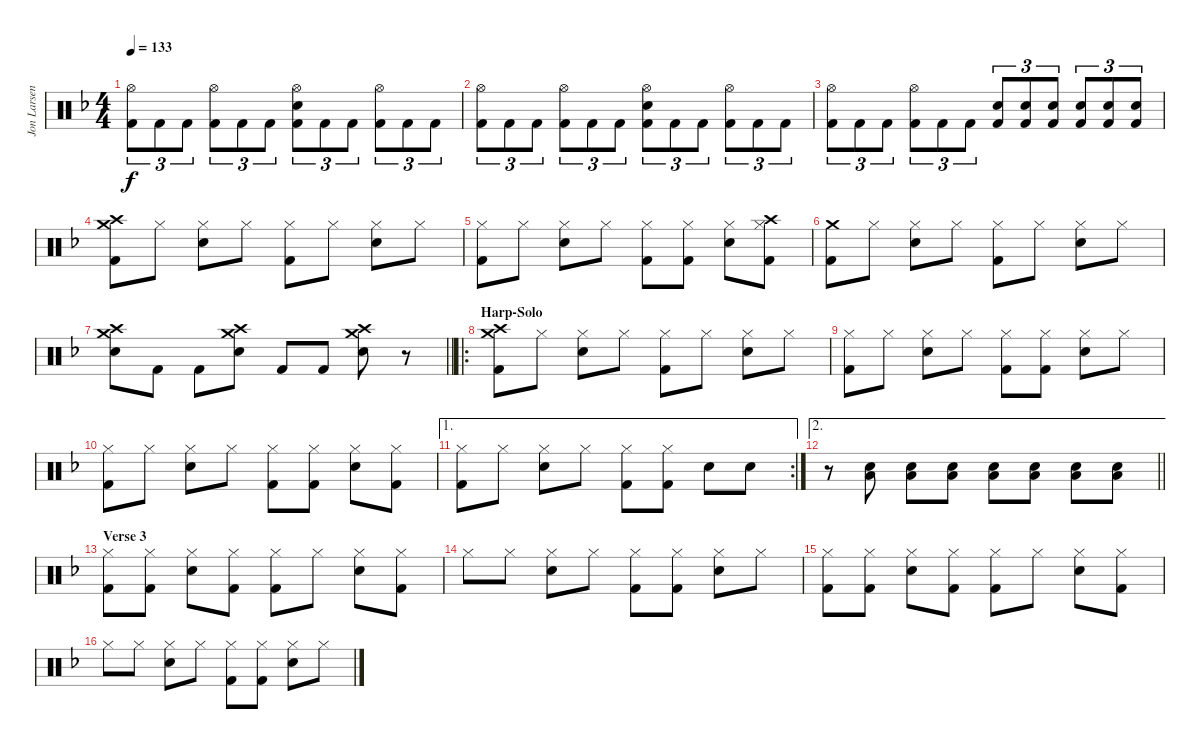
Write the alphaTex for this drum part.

\track ("Jon Larsen" "Jon Larsen") {instrument percussion}
\staff {score}
\articulation defaults
\ts (4 4)
\tempo 133
\clef neutral
\ks f
("Hi-Hat (open)" "Kick (hit) 2").8{tu (3 2) dy f} "Kick (hit) 2".8{tu (3 2)} "Kick (hit) 2".8{tu (3 2)} ("Hi-Hat (open)" "Kick (hit) 2").8{tu (3 2)} "Kick (hit) 2".8{tu (3 2)} "Kick (hit) 2".8{tu (3 2)} ("Hi-Hat (open)" "Kick (hit) 2" "Electric Snare (hit)").8{tu (3 2)} "Kick (hit) 2".8{tu (3 2)} "Kick (hit) 2".8{tu (3 2)} ("Hi-Hat (open)" "Kick (hit) 2").8{tu (3 2)} "Kick (hit) 2".8{tu (3 2)} "Kick (hit) 2".8{tu (3 2)} |
("Hi-Hat (open)" "Kick (hit) 2").8{tu (3 2)} "Kick (hit) 2".8{tu (3 2)} "Kick (hit) 2".8{tu (3 2)} ("Hi-Hat (open)" "Kick (hit) 2").8{tu (3 2)} "Kick (hit) 2".8{tu (3 2)} "Kick (hit) 2".8{tu (3 2)} ("Hi-Hat (open)" "Kick (hit) 2" "Electric Snare (hit)").8{tu (3 2)} "Kick (hit) 2".8{tu (3 2)} "Kick (hit) 2".8{tu (3 2)} ("Hi-Hat (open)" "Kick (hit) 2").8{tu (3 2)} "Kick (hit) 2".8{tu (3 2)} "Kick (hit) 2".8{tu (3 2)} |
("Hi-Hat (open)" "Kick (hit) 2").8{tu (3 2)} "Kick (hit) 2".8{tu (3 2)} "Kick (hit) 2".8{tu (3 2)} ("Hi-Hat (open)" "Kick (hit) 2").8{tu (3 2)} "Kick (hit) 2".8{tu (3 2)} "Kick (hit) 2".8{tu (3 2)} ("Kick (hit) 2" "Electric Snare (hit)").8{tu (3 2)} ("Kick (hit) 2" "Electric Snare (hit)").8{tu (3 2)} ("Kick (hit) 2" "Electric Snare (hit)").8{tu (3 2)} ("Kick (hit) 2" "Electric Snare (hit)").8{tu (3 2)} ("Kick (hit) 2" "Electric Snare (hit)").8{tu (3 2)} ("Kick (hit) 2" "Electric Snare (hit)").8{tu (3 2)} |
("Crash medium (hit)" "Crash high (hit)" "Kick (hit) 2").8 "Hi-Hat (closed)".8 ("Hi-Hat (closed)" "Electric Snare (hit)").8 "Hi-Hat (closed)".8 ("Hi-Hat (closed)" "Kick (hit) 2").8 "Hi-Hat (closed)".8 ("Hi-Hat (closed)" "Electric Snare (hit)").8 "Hi-Hat (closed)".8 |
("Hi-Hat (closed)" "Kick (hit) 2").8 "Hi-Hat (closed)".8 ("Hi-Hat (closed)" "Electric Snare (hit)").8 "Hi-Hat (closed)".8 ("Hi-Hat (closed)" "Kick (hit) 2").8 ("Hi-Hat (closed)" "Kick (hit) 2").8 ("Hi-Hat (closed)" "Electric Snare (hit)").8 ("Crash high (hit)" "Hi-Hat (closed)" "Kick (hit) 2").8 |
("Crash medium (hit)" "Kick (hit) 2").8 "Hi-Hat (closed)".8 ("Hi-Hat (closed)" "Electric Snare (hit)").8 "Hi-Hat (closed)".8 ("Hi-Hat (closed)" "Kick (hit) 2").8 "Hi-Hat (closed)".8 ("Hi-Hat (closed)" "Electric Snare (hit)").8 "Hi-Hat (closed)".8 |
\barLineRight lightlight
("Crash medium (hit)" "Crash high (hit)" "Electric Snare (hit)").8 "Kick (hit) 2".8 "Kick (hit) 2".8 ("Crash medium (hit)" "Crash high (hit)" "Electric Snare (hit)").8 "Kick (hit) 2".8 "Kick (hit) 2".8 ("Crash medium (hit)" "Crash high (hit)" "Electric Snare (hit)").8 r.8 |
\ro
\section ("" "Harp-Solo")
("Crash medium (hit)" "Crash high (hit)" "Kick (hit) 2").8 "Hi-Hat (closed)".8 ("Hi-Hat (closed)" "Electric Snare (hit)").8 "Hi-Hat (closed)".8 ("Hi-Hat (closed)" "Kick (hit) 2").8 "Hi-Hat (closed)".8 ("Hi-Hat (closed)" "Electric Snare (hit)").8 "Hi-Hat (closed)".8 |
("Hi-Hat (closed)" "Kick (hit) 2").8 "Hi-Hat (closed)".8 ("Hi-Hat (closed)" "Electric Snare (hit)").8 "Hi-Hat (closed)".8 ("Hi-Hat (closed)" "Kick (hit) 2").8 ("Hi-Hat (closed)" "Kick (hit) 2").8 ("Hi-Hat (closed)" "Electric Snare (hit)").8 "Hi-Hat (closed)".8 |
("Hi-Hat (closed)" "Kick (hit) 2").8 "Hi-Hat (closed)".8 ("Hi-Hat (closed)" "Electric Snare (hit)").8 "Hi-Hat (closed)".8 ("Hi-Hat (closed)" "Kick (hit) 2").8 ("Hi-Hat (closed)" "Kick (hit) 2").8 ("Hi-Hat (closed)" "Electric Snare (hit)").8 ("Hi-Hat (closed)" "Kick (hit) 2").8 |
\ae 1
\rc 2
("Hi-Hat (closed)" "Kick (hit) 2").8 "Hi-Hat (closed)".8 ("Hi-Hat (closed)" "Electric Snare (hit)").8 "Hi-Hat (closed)".8 ("Hi-Hat (closed)" "Kick (hit) 2").8 ("Hi-Hat (closed)" "Kick (hit) 2").8 "Electric Snare (hit)".8 "Electric Snare (hit)".8 |
\ae 2
\barLineRight lightlight
r.8 ("Low Tom (hit)" "Electric Snare (hit)").8 ("Low Tom (hit)" "Electric Snare (hit)").8 ("Low Tom (hit)" "Electric Snare (hit)").8 ("Low Tom (hit)" "Electric Snare (hit)").8 ("Low Tom (hit)" "Electric Snare (hit)").8 ("Low Tom (hit)" "Electric Snare (hit)").8 ("Low Tom (hit)" "Electric Snare (hit)").8 |
\section ("" "Verse 3")
("Hi-Hat (closed)" "Kick (hit) 2").8 ("Hi-Hat (closed)" "Kick (hit) 2").8 ("Hi-Hat (closed)" "Electric Snare (hit)").8 ("Hi-Hat (closed)" "Kick (hit) 2").8 ("Hi-Hat (closed)" "Kick (hit) 2").8 "Hi-Hat (closed)".8 ("Hi-Hat (closed)" "Electric Snare (hit)").8 ("Hi-Hat (closed)" "Kick (hit) 2").8 |
"Hi-Hat (closed)".8 "Hi-Hat (closed)".8 ("Hi-Hat (closed)" "Electric Snare (hit)").8 "Hi-Hat (closed)".8 ("Hi-Hat (closed)" "Kick (hit) 2").8 ("Hi-Hat (closed)" "Kick (hit) 2").8 ("Hi-Hat (closed)" "Electric Snare (hit)").8 "Hi-Hat (closed)".8 |
("Hi-Hat (closed)" "Kick (hit) 2").8 ("Hi-Hat (closed)" "Kick (hit) 2").8 ("Hi-Hat (closed)" "Electric Snare (hit)").8 ("Hi-Hat (closed)" "Kick (hit) 2").8 ("Hi-Hat (closed)" "Kick (hit) 2").8 "Hi-Hat (closed)".8 ("Hi-Hat (closed)" "Electric Snare (hit)").8 ("Hi-Hat (closed)" "Kick (hit) 2").8 |
"Hi-Hat (closed)".8 "Hi-Hat (closed)".8 ("Hi-Hat (closed)" "Electric Snare (hit)").8 "Hi-Hat (closed)".8 ("Hi-Hat (closed)" "Kick (hit) 2").8 ("Hi-Hat (closed)" "Kick (hit) 2").8 ("Hi-Hat (closed)" "Electric Snare (hit)").8 "Hi-Hat (closed)".8
